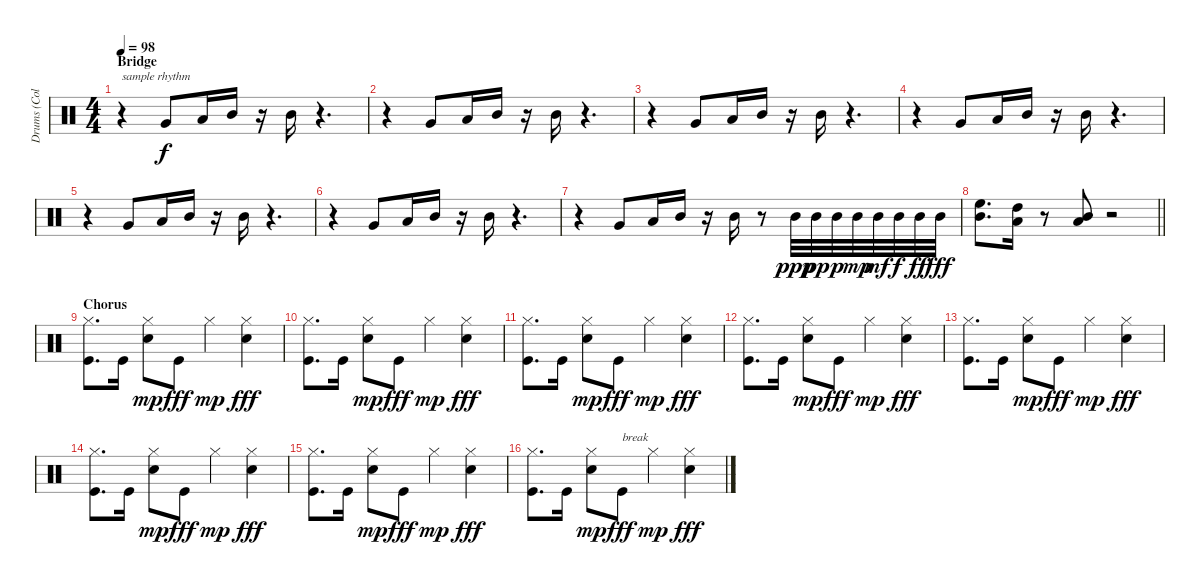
\track ("Drums (Collins)" "Drums (Col") {instrument percussion}
\staff {score}
\articulation defaults
\ts (4 4)
\section ("" "Bridge")
\tempo 98
\clef neutral
\ks c
r.4{txt "sample rhythm" dy f} "Very Low Tom (hit)".8 "Low Tom (hit)".16 "Mid Tom (hit)".16 r.16 "Mid Tom (hit)".16 r.4{d} |
r.4 "Very Low Tom (hit)".8 "Low Tom (hit)".16 "Mid Tom (hit)".16 r.16 "Mid Tom (hit)".16 r.4{d} |
r.4 "Very Low Tom (hit)".8 "Low Tom (hit)".16 "Mid Tom (hit)".16 r.16 "Mid Tom (hit)".16 r.4{d} |
r.4 "Very Low Tom (hit)".8 "Low Tom (hit)".16 "Mid Tom (hit)".16 r.16 "Mid Tom (hit)".16 r.4{d} |
r.4 "Very Low Tom (hit)".8 "Low Tom (hit)".16 "Mid Tom (hit)".16 r.16 "Mid Tom (hit)".16 r.4{d} |
r.4 "Very Low Tom (hit)".8 "Low Tom (hit)".16 "Mid Tom (hit)".16 r.16 "Mid Tom (hit)".16 r.4{d} |
r.4 "Very Low Tom (hit)".8 "Low Tom (hit)".16 "Mid Tom (hit)".16 r.16 "Mid Tom (hit)".16 r.8 "Mid Tom (hit)".32{dy ppp} "Mid Tom (hit)".32{dy pp} "Mid Tom (hit)".32{dy p} "Mid Tom (hit)".32{dy mp} "Mid Tom (hit)".32{dy mf} "Mid Tom (hit)".32{dy f} "Mid Tom (hit)".32{dy ff} "Mid Tom (hit)".32{dy fff} |
\barLineRight lightlight
("High Floor Tom (hit)" "Mid Tom (hit)").8{d} ("High Tom (hit)" "Low Tom (hit)").16 r.8 ("Mid Tom (hit)" "Low Floor Tom (hit)").8 r.2 |
\section ("" "Chorus")
("Hi-Hat (closed)" "Kick (hit)").8{d} "Kick (hit)".16 ("Electric Snare (hit)" "Hi-Hat (closed)").8{dy mp} "Kick (hit)".8{dy fff} "Hi-Hat (closed)".4{dy mp} ("Hi-Hat (closed)" "Electric Snare (hit)").4{dy fff} |
("Hi-Hat (closed)" "Kick (hit)").8{d} "Kick (hit)".16 ("Electric Snare (hit)" "Hi-Hat (closed)").8{dy mp} "Kick (hit)".8{dy fff} "Hi-Hat (closed)".4{dy mp} ("Hi-Hat (closed)" "Electric Snare (hit)").4{dy fff} |
("Hi-Hat (closed)" "Kick (hit)").8{d} "Kick (hit)".16 ("Electric Snare (hit)" "Hi-Hat (closed)").8{dy mp} "Kick (hit)".8{dy fff} "Hi-Hat (closed)".4{dy mp} ("Hi-Hat (closed)" "Electric Snare (hit)").4{dy fff} |
("Hi-Hat (closed)" "Kick (hit)").8{d} "Kick (hit)".16 ("Electric Snare (hit)" "Hi-Hat (closed)").8{dy mp} "Kick (hit)".8{dy fff} "Hi-Hat (closed)".4{dy mp} ("Hi-Hat (closed)" "Electric Snare (hit)").4{dy fff} |
("Hi-Hat (closed)" "Kick (hit)").8{d} "Kick (hit)".16 ("Electric Snare (hit)" "Hi-Hat (closed)").8{dy mp} "Kick (hit)".8{dy fff} "Hi-Hat (closed)".4{dy mp} ("Hi-Hat (closed)" "Electric Snare (hit)").4{dy fff} |
("Hi-Hat (closed)" "Kick (hit)").8{d} "Kick (hit)".16 ("Electric Snare (hit)" "Hi-Hat (closed)").8{dy mp} "Kick (hit)".8{dy fff} "Hi-Hat (closed)".4{dy mp} ("Hi-Hat (closed)" "Electric Snare (hit)").4{dy fff} |
("Hi-Hat (closed)" "Kick (hit)").8{d} "Kick (hit)".16 ("Electric Snare (hit)" "Hi-Hat (closed)").8{dy mp} "Kick (hit)".8{dy fff} "Hi-Hat (closed)".4{dy mp} ("Hi-Hat (closed)" "Electric Snare (hit)").4{dy fff} |
("Hi-Hat (closed)" "Kick (hit)").8{d} "Kick (hit)".16 ("Electric Snare (hit)" "Hi-Hat (closed)").8{dy mp} "Kick (hit)".8{txt "break" dy fff} "Hi-Hat (closed)".4{dy mp} ("Hi-Hat (closed)" "Electric Snare (hit)").4{dy fff}
